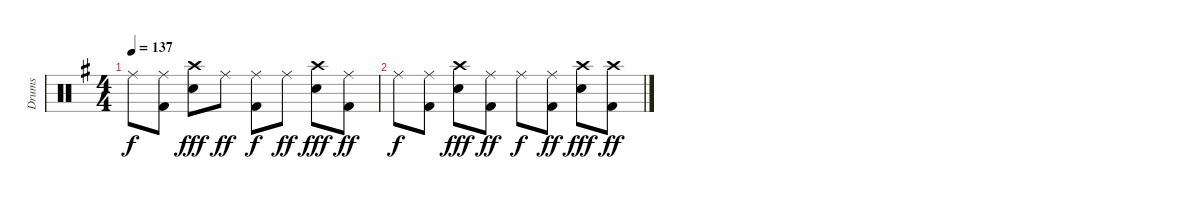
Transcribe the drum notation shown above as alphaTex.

\track ("Drums" "Drums") {instrument percussion}
\staff {score}
\articulation defaults
\ts (4 4)
\tempo 137
\clef neutral
\ks g "Ride (middle)".8{dy f volume 10}
("Ride (middle)" "Kick (hit) 2").8{volume 10} ("Crash high (hit)" "Snare (hit) 2").8{dy fff volume 10} "Ride (middle)".8{dy ff volume 10} ("Ride (middle)" "Kick (hit) 2").8{dy f volume 9} "Ride (middle)".8{dy ff volume 9} ("Crash high (hit)" "Snare (hit) 2").8{dy fff volume 9} ("Ride (middle)" "Kick (hit) 2").8{dy ff volume 8} |
"Ride (middle)".8{dy f volume 8} ("Ride (middle)" "Kick (hit) 2").8{volume 7} ("Crash high (hit)" "Snare (hit) 2").8{dy fff volume 7} ("Ride (middle)" "Kick (hit) 2").8{dy ff volume 7} "Ride (middle)".8{dy f volume 6} ("Ride (middle)" "Kick (hit) 2").8{dy ff volume 6} ("Crash high (hit)" "Snare (hit) 2").8{dy fff volume 5} ("Crash high (hit)" "Kick (hit) 2").8{dy ff volume 5}
